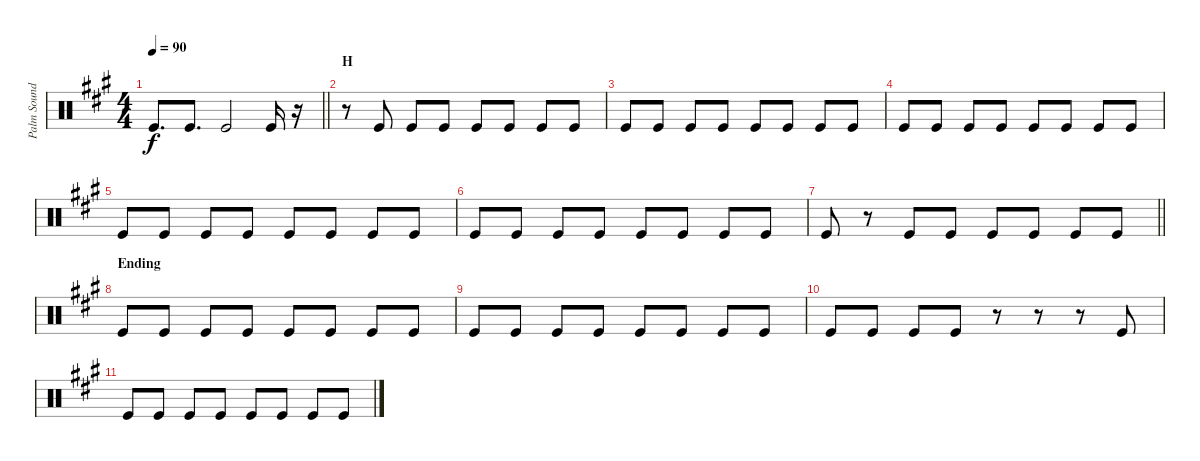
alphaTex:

\track ("Palm Sound" "Palm Sound") {instrument percussion}
\staff {score}
\articulation defaults
\ts (4 4)
\tempo 90
\clef neutral
\barLineRight lightlight
\ks a "Kick (hit)".8{d dy f} "Kick (hit)".8{d} "Kick (hit)".2 "Kick (hit)".16
r.16 |
\section ("" "H")
r.8 "Kick (hit)".8 "Kick (hit)".8 "Kick (hit)".8 "Kick (hit)".8 "Kick (hit)".8 "Kick (hit)".8 "Kick (hit)".8 |
"Kick (hit)".8 "Kick (hit)".8 "Kick (hit)".8 "Kick (hit)".8 "Kick (hit)".8 "Kick (hit)".8 "Kick (hit)".8 "Kick (hit)".8 |
"Kick (hit)".8 "Kick (hit)".8 "Kick (hit)".8 "Kick (hit)".8 "Kick (hit)".8 "Kick (hit)".8 "Kick (hit)".8 "Kick (hit)".8 |
"Kick (hit)".8 "Kick (hit)".8 "Kick (hit)".8 "Kick (hit)".8 "Kick (hit)".8 "Kick (hit)".8 "Kick (hit)".8 "Kick (hit)".8 |
"Kick (hit)".8 "Kick (hit)".8 "Kick (hit)".8 "Kick (hit)".8 "Kick (hit)".8 "Kick (hit)".8 "Kick (hit)".8 "Kick (hit)".8 |
\barLineRight lightlight "Kick (hit)".8
r.8 "Kick (hit)".8 "Kick (hit)".8 "Kick (hit)".8 "Kick (hit)".8 "Kick (hit)".8 "Kick (hit)".8 |
\section ("" "Ending")
"Kick (hit)".8 "Kick (hit)".8 "Kick (hit)".8 "Kick (hit)".8 "Kick (hit)".8 "Kick (hit)".8 "Kick (hit)".8 "Kick (hit)".8 |
"Kick (hit)".8 "Kick (hit)".8 "Kick (hit)".8 "Kick (hit)".8 "Kick (hit)".8 "Kick (hit)".8 "Kick (hit)".8 "Kick (hit)".8 |
"Kick (hit)".8 "Kick (hit)".8 "Kick (hit)".8 "Kick (hit)".8 r.8 r.8 r.8 "Kick (hit)".8 |
"Kick (hit)".8 "Kick (hit)".8 "Kick (hit)".8 "Kick (hit)".8 "Kick (hit)".8 "Kick (hit)".8 "Kick (hit)".8 "Kick (hit)".8
